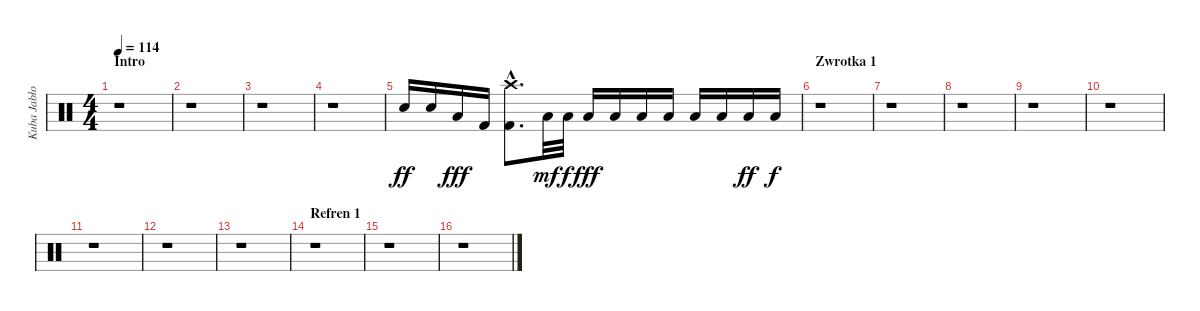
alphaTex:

\track ("Kuba Jabłoński" "Kuba Jabło") {instrument percussion}
\staff {score}
\articulation defaults
\ts (4 4)
\section ("" "Intro")
\tempo 114
\clef neutral
\ks c
r.1{dy ff} |
r.1 |
r.1 |
r.1 |
"Snare (hit) 2".16 "Snare (hit) 2".16 "Low Floor Tom (hit)".16{dy fff} "Kick (hit) 2".16 ("Kick (hit) 2" "Crash high (hit)"{hac}).8{d} "Low Tom (hit)".32{dy mf} "Low Tom (hit)".32{dy f} "Low Tom (hit)".16{dy fff} "Low Tom (hit)".16 "Low Tom (hit)".16 "Low Tom (hit)".16 "Low Floor Tom (hit)".16 "Low Floor Tom (hit)".16 "Low Floor Tom (hit)".16{dy ff} "Low Floor Tom (hit)".16{dy f} |
\section ("" "Zwrotka 1")
r.1 |
r.1 |
r.1 |
r.1 |
r.1 |
r.1 |
r.1 |
r.1 |
\section ("" "Refren 1")
r.1 |
r.1 |
r.1
